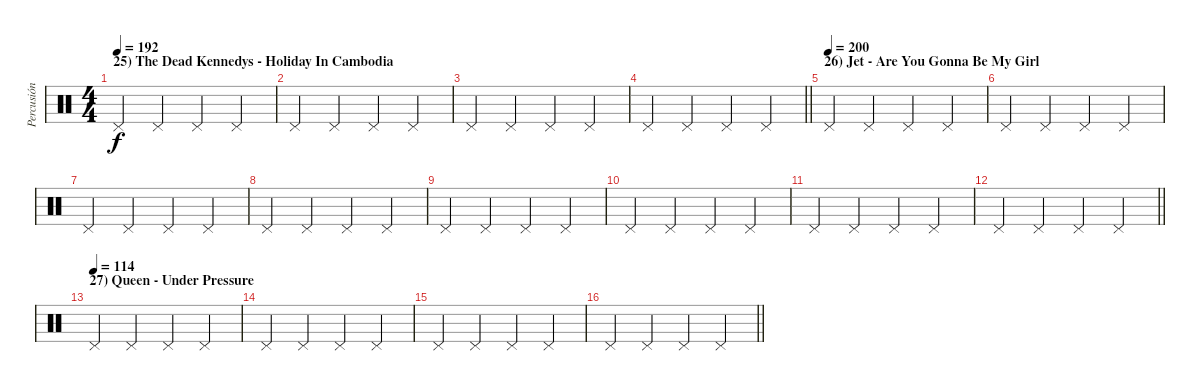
\track ("Percusión" "Percusión") {instrument percussion}
\staff {score}
\articulation defaults
\ts (4 4)
\section ("" "25) The Dead Kennedys - Holiday In Cambodia")
\tempo 192
\clef neutral
\ks c "Pedal Hi-Hat (hit)".4{dy f} "Pedal Hi-Hat (hit)".4 "Pedal Hi-Hat (hit)".4 "Pedal Hi-Hat (hit)".4
|
"Pedal Hi-Hat (hit)".4 "Pedal Hi-Hat (hit)".4 "Pedal Hi-Hat (hit)".4 "Pedal Hi-Hat (hit)".4 |
"Pedal Hi-Hat (hit)".4 "Pedal Hi-Hat (hit)".4 "Pedal Hi-Hat (hit)".4 "Pedal Hi-Hat (hit)".4 |
\barLineRight lightlight "Pedal Hi-Hat (hit)".4 "Pedal Hi-Hat (hit)".4 "Pedal Hi-Hat (hit)".4 "Pedal Hi-Hat (hit)".4
|
\section ("" "26) Jet - Are You Gonna Be My Girl")
\tempo (200)
"Pedal Hi-Hat (hit)".4 "Pedal Hi-Hat (hit)".4 "Pedal Hi-Hat (hit)".4 "Pedal Hi-Hat (hit)".4 |
"Pedal Hi-Hat (hit)".4 "Pedal Hi-Hat (hit)".4 "Pedal Hi-Hat (hit)".4 "Pedal Hi-Hat (hit)".4 |
"Pedal Hi-Hat (hit)".4 "Pedal Hi-Hat (hit)".4 "Pedal Hi-Hat (hit)".4 "Pedal Hi-Hat (hit)".4 |
"Pedal Hi-Hat (hit)".4 "Pedal Hi-Hat (hit)".4 "Pedal Hi-Hat (hit)".4 "Pedal Hi-Hat (hit)".4 |
"Pedal Hi-Hat (hit)".4 "Pedal Hi-Hat (hit)".4 "Pedal Hi-Hat (hit)".4 "Pedal Hi-Hat (hit)".4 |
"Pedal Hi-Hat (hit)".4 "Pedal Hi-Hat (hit)".4 "Pedal Hi-Hat (hit)".4 "Pedal Hi-Hat (hit)".4 |
"Pedal Hi-Hat (hit)".4 "Pedal Hi-Hat (hit)".4 "Pedal Hi-Hat (hit)".4 "Pedal Hi-Hat (hit)".4 |
\barLineRight lightlight "Pedal Hi-Hat (hit)".4 "Pedal Hi-Hat (hit)".4 "Pedal Hi-Hat (hit)".4 "Pedal Hi-Hat (hit)".4
|
\section ("" "27) Queen - Under Pressure")
\tempo (114)
"Pedal Hi-Hat (hit)".4 "Pedal Hi-Hat (hit)".4 "Pedal Hi-Hat (hit)".4 "Pedal Hi-Hat (hit)".4 |
"Pedal Hi-Hat (hit)".4 "Pedal Hi-Hat (hit)".4 "Pedal Hi-Hat (hit)".4 "Pedal Hi-Hat (hit)".4 |
"Pedal Hi-Hat (hit)".4 "Pedal Hi-Hat (hit)".4 "Pedal Hi-Hat (hit)".4 "Pedal Hi-Hat (hit)".4 |
\barLineRight lightlight "Pedal Hi-Hat (hit)".4 "Pedal Hi-Hat (hit)".4 "Pedal Hi-Hat (hit)".4 "Pedal Hi-Hat (hit)".4
